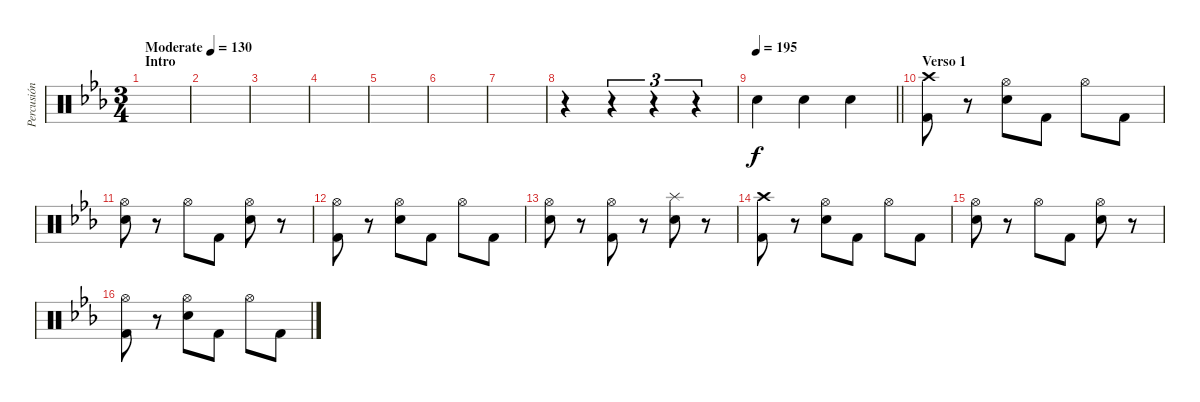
\track ("Percusión" "Percusión") {instrument percussion}
\staff {score}
\articulation defaults
\ts (3 4)
\section ("" "Intro")
\tempo (130 "Moderate")
\clef neutral
\ks eb
|
|
|
|
|
|
|
r.4 r.4{tu (3 2)} r.4{tu (3 2)} r.4{tu (3 2)} |
\tempo 195
\barLineRight lightlight "Snare (hit) 2".4 "Snare (hit) 2".4 "Snare (hit) 2".4
|
\section ("" "Verso 1")
("Crash high (hit)" "Kick (hit) 2").8 r.8 ("Hi-Hat (open)" "Snare (hit) 2").8 "Kick (hit) 2".8 "Hi-Hat (open)".8 "Kick (hit) 2".8 |
("Hi-Hat (open)" "Snare (hit) 2").8 r.8 "Hi-Hat (open)".8 "Kick (hit) 2".8 ("Hi-Hat (open)" "Snare (hit) 2").8 r.8 |
("Hi-Hat (open)" "Kick (hit) 2").8 r.8 ("Hi-Hat (open)" "Snare (hit) 2").8 "Kick (hit) 2".8 "Hi-Hat (open)".8 "Kick (hit) 2".8 |
("Hi-Hat (open)" "Snare (hit) 2").8 r.8 ("Hi-Hat (open)" "Kick (hit) 2").8 r.8 ("Splash (hit)" "Snare (hit) 2").8 r.8 |
("Crash high (hit)" "Kick (hit) 2").8 r.8 ("Hi-Hat (open)" "Snare (hit) 2").8 "Kick (hit) 2".8 "Hi-Hat (open)".8 "Kick (hit) 2".8 |
("Hi-Hat (open)" "Snare (hit) 2").8 r.8 "Hi-Hat (open)".8 "Kick (hit) 2".8 ("Hi-Hat (open)" "Snare (hit) 2").8 r.8 |
("Hi-Hat (open)" "Kick (hit) 2").8 r.8 ("Hi-Hat (open)" "Snare (hit) 2").8 "Kick (hit) 2".8 "Hi-Hat (open)".8 "Kick (hit) 2".8
